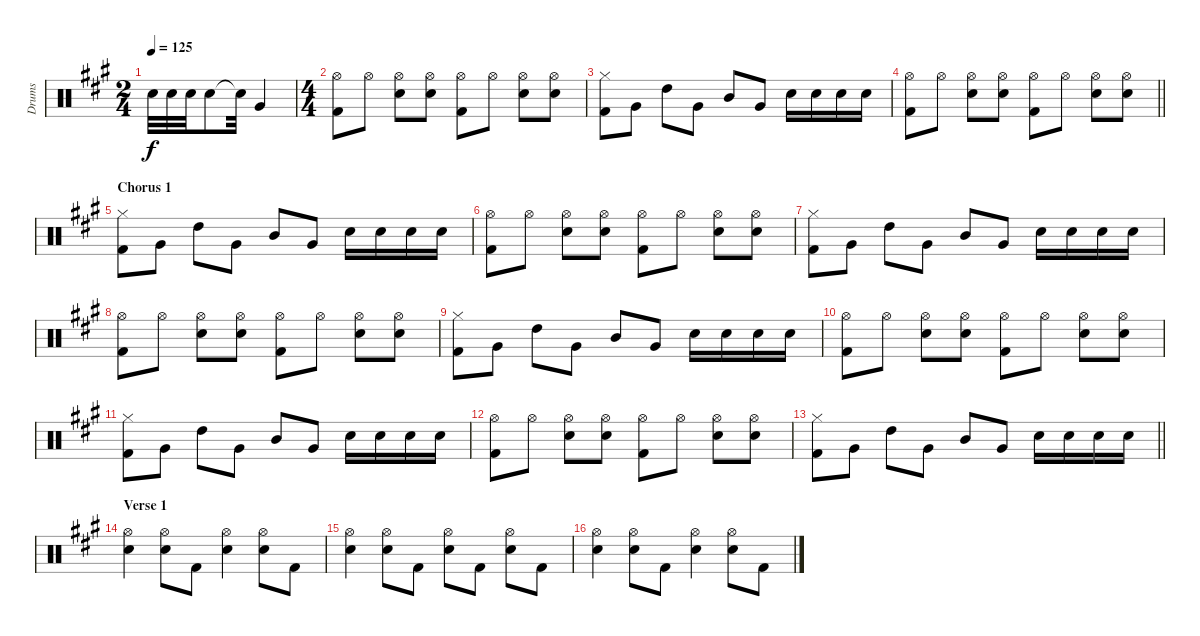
\track ("Drums" "Drums") {instrument percussion}
\staff {score}
\articulation defaults
\ts (2 4)
\tempo 125
\clef neutral
\ks a "Electric Snare (hit)".32{dy f} "Electric Snare (hit)".32 "Electric Snare (hit)".32 "Electric Snare (hit)".8 "Snare (hit)"{t}.32 "Very Low Tom (hit)".4
|
\ts (4 4)
("Hi-Hat (open)" "Kick (hit) 2").8 "Hi-Hat (open)".8 ("Hi-Hat (open)" "Electric Snare (hit)").8 ("Hi-Hat (open)" "Electric Snare (hit)").8 ("Hi-Hat (open)" "Kick (hit) 2").8 "Hi-Hat (open)".8 ("Hi-Hat (open)" "Electric Snare (hit)").8 ("Hi-Hat (open)" "Electric Snare (hit)").8 |
("Hi-Hat (closed)" "Kick (hit) 2").8 "Very Low Tom (hit)".8 "High Tom (hit)".8 "Very Low Tom (hit)".8 "Mid Tom (hit)".8 "Very Low Tom (hit)".8 "Electric Snare (hit)".16 "Electric Snare (hit)".16 "Electric Snare (hit)".16 "Electric Snare (hit)".16 |
\barLineRight lightlight
("Hi-Hat (open)" "Kick (hit) 2").8 "Hi-Hat (open)".8 ("Hi-Hat (open)" "Electric Snare (hit)").8 ("Hi-Hat (open)" "Electric Snare (hit)").8 ("Hi-Hat (open)" "Kick (hit) 2").8 "Hi-Hat (open)".8 ("Hi-Hat (open)" "Electric Snare (hit)").8 ("Hi-Hat (open)" "Electric Snare (hit)").8 |
\section ("" "Chorus 1")
("Hi-Hat (closed)" "Kick (hit) 2").8 "Very Low Tom (hit)".8 "High Tom (hit)".8 "Very Low Tom (hit)".8 "Mid Tom (hit)".8 "Very Low Tom (hit)".8 "Electric Snare (hit)".16 "Electric Snare (hit)".16 "Electric Snare (hit)".16 "Electric Snare (hit)".16 |
("Hi-Hat (open)" "Kick (hit) 2").8 "Hi-Hat (open)".8 ("Hi-Hat (open)" "Electric Snare (hit)").8 ("Hi-Hat (open)" "Electric Snare (hit)").8 ("Hi-Hat (open)" "Kick (hit) 2").8 "Hi-Hat (open)".8 ("Hi-Hat (open)" "Electric Snare (hit)").8 ("Hi-Hat (open)" "Electric Snare (hit)").8 |
("Hi-Hat (closed)" "Kick (hit) 2").8 "Very Low Tom (hit)".8 "High Tom (hit)".8 "Very Low Tom (hit)".8 "Mid Tom (hit)".8 "Very Low Tom (hit)".8 "Electric Snare (hit)".16 "Electric Snare (hit)".16 "Electric Snare (hit)".16 "Electric Snare (hit)".16 |
("Hi-Hat (open)" "Kick (hit) 2").8 "Hi-Hat (open)".8 ("Hi-Hat (open)" "Electric Snare (hit)").8 ("Hi-Hat (open)" "Electric Snare (hit)").8 ("Hi-Hat (open)" "Kick (hit) 2").8 "Hi-Hat (open)".8 ("Hi-Hat (open)" "Electric Snare (hit)").8 ("Hi-Hat (open)" "Electric Snare (hit)").8 |
("Hi-Hat (closed)" "Kick (hit) 2").8 "Very Low Tom (hit)".8 "High Tom (hit)".8 "Very Low Tom (hit)".8 "Mid Tom (hit)".8 "Very Low Tom (hit)".8 "Electric Snare (hit)".16 "Electric Snare (hit)".16 "Electric Snare (hit)".16 "Electric Snare (hit)".16 |
("Hi-Hat (open)" "Kick (hit) 2").8 "Hi-Hat (open)".8 ("Hi-Hat (open)" "Electric Snare (hit)").8 ("Hi-Hat (open)" "Electric Snare (hit)").8 ("Hi-Hat (open)" "Kick (hit) 2").8 "Hi-Hat (open)".8 ("Hi-Hat (open)" "Electric Snare (hit)").8 ("Hi-Hat (open)" "Electric Snare (hit)").8 |
("Hi-Hat (closed)" "Kick (hit) 2").8 "Very Low Tom (hit)".8 "High Tom (hit)".8 "Very Low Tom (hit)".8 "Mid Tom (hit)".8 "Very Low Tom (hit)".8 "Electric Snare (hit)".16 "Electric Snare (hit)".16 "Electric Snare (hit)".16 "Electric Snare (hit)".16 |
("Hi-Hat (open)" "Kick (hit) 2").8 "Hi-Hat (open)".8 ("Hi-Hat (open)" "Electric Snare (hit)").8 ("Hi-Hat (open)" "Electric Snare (hit)").8 ("Hi-Hat (open)" "Kick (hit) 2").8 "Hi-Hat (open)".8 ("Hi-Hat (open)" "Electric Snare (hit)").8 ("Hi-Hat (open)" "Electric Snare (hit)").8 |
\barLineRight lightlight
("Hi-Hat (closed)" "Kick (hit) 2").8 "Very Low Tom (hit)".8 "High Tom (hit)".8 "Very Low Tom (hit)".8 "Mid Tom (hit)".8 "Very Low Tom (hit)".8 "Electric Snare (hit)".16 "Electric Snare (hit)".16 "Electric Snare (hit)".16 "Electric Snare (hit)".16 |
\section ("" "Verse 1")
("Hi-Hat (open)" "Electric Snare (hit)").4 ("Hi-Hat (open)" "Electric Snare (hit)").8 "Kick (hit) 2".8 ("Hi-Hat (open)" "Electric Snare (hit)").4 ("Hi-Hat (open)" "Electric Snare (hit)").8 "Kick (hit) 2".8 |
("Hi-Hat (open)" "Electric Snare (hit)").4 ("Hi-Hat (open)" "Electric Snare (hit)").8 "Kick (hit) 2".8 ("Hi-Hat (open)" "Electric Snare (hit)").8 "Kick (hit) 2".8 ("Hi-Hat (open)" "Electric Snare (hit)").8 "Kick (hit) 2".8 |
("Hi-Hat (open)" "Electric Snare (hit)").4 ("Hi-Hat (open)" "Electric Snare (hit)").8 "Kick (hit) 2".8 ("Hi-Hat (open)" "Electric Snare (hit)").4 ("Hi-Hat (open)" "Electric Snare (hit)").8 "Kick (hit) 2".8
